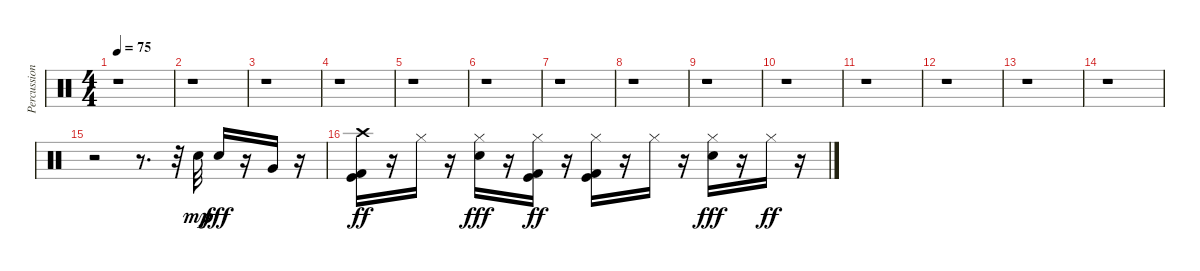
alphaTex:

\track ("Percussion" "Percussion") {instrument percussion}
\staff {score}
\articulation defaults
\ts (4 4)
\tempo 75
\clef neutral
\ks c
r.1{dy mp} |
r.1 |
r.1 |
r.1 |
r.1 |
r.1 |
r.1 |
r.1 |
r.1 |
r.1 |
r.1 |
r.1 |
r.1 |
r.1 |
r.2 r.8{d} r.32 "Electric Snare (hit)".32 "Electric Snare (hit)".16{dy fff} r.16 "Very Low Tom (hit)".16 r.16 |
("Crash high (hit)" "Kick (hit)" "Kick (hit) 2").16{dy ff} r.16 "Hi-Hat (closed)".16 r.16 ("Hi-Hat (closed)" "Electric Snare (hit)").16{dy fff} r.16 ("Kick (hit)" "Kick (hit) 2" "Hi-Hat (closed)").16{dy ff} r.16 ("Kick (hit)" "Kick (hit) 2" "Hi-Hat (closed)").16 r.16 "Hi-Hat (closed)".16 r.16 ("Hi-Hat (closed)" "Electric Snare (hit)").16{dy fff} r.16 "Hi-Hat (closed)".16{dy ff} r.16
